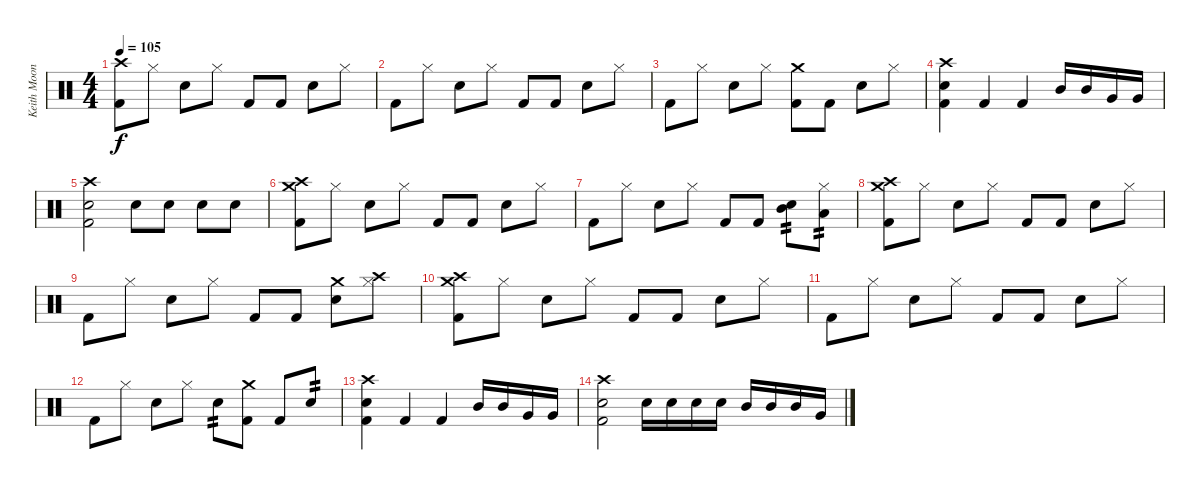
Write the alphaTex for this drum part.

\track ("Keith Moon" "Keith Moon") {instrument percussion}
\staff {score}
\articulation defaults
\ts (4 4)
\tempo 105
\clef neutral
\ks c
("Crash high (hit)" "Kick (hit) 2").8{dy f} "Hi-Hat (closed)".8 "Electric Snare (hit)".8 "Hi-Hat (closed)".8 "Kick (hit) 2".8 "Kick (hit) 2".8 "Electric Snare (hit)".8 "Hi-Hat (closed)".8 |
"Kick (hit) 2".8 "Hi-Hat (closed)".8 "Electric Snare (hit)".8 "Hi-Hat (closed)".8 "Kick (hit) 2".8 "Kick (hit) 2".8 "Electric Snare (hit)".8 "Hi-Hat (closed)".8 |
"Kick (hit) 2".8 "Hi-Hat (closed)".8 "Electric Snare (hit)".8 "Hi-Hat (closed)".8 ("Crash medium (hit)" "Kick (hit) 2").8 "Kick (hit) 2".8 "Electric Snare (hit)".8 "Hi-Hat (closed)".8 |
("Crash high (hit)" "Electric Snare (hit)" "Kick (hit) 2").4 "Kick (hit) 2".4 "Kick (hit) 2".4 "Mid Tom (hit)".16 "Mid Tom (hit)".16 "Very Low Tom (hit)".16 "Very Low Tom (hit)".16 |
("Crash high (hit)" "Electric Snare (hit)" "Kick (hit) 2").2 "Electric Snare (hit)".8 "Electric Snare (hit)".8 "Electric Snare (hit)".8 "Electric Snare (hit)".8 |
("Crash high (hit)" "Crash medium (hit)" "Kick (hit) 2").8 "Hi-Hat (closed)".8 "Electric Snare (hit)".8 "Hi-Hat (closed)".8 "Kick (hit) 2".8 "Kick (hit) 2".8 "Electric Snare (hit)".8 "Hi-Hat (closed)".8 |
"Kick (hit) 2".8 "Hi-Hat (closed)".8 "Electric Snare (hit)".8 "Hi-Hat (closed)".8 "Kick (hit) 2".8 "Kick (hit) 2".8 ("Electric Snare (hit)" "Mid Tom (hit)").8{tp 2} ("Hi-Hat (closed)" "Low Floor Tom (hit)").8{tp 2} |
("Crash high (hit)" "Crash medium (hit)" "Kick (hit) 2").8 "Hi-Hat (closed)".8 "Electric Snare (hit)".8 "Hi-Hat (closed)".8 "Kick (hit) 2".8 "Kick (hit) 2".8 "Electric Snare (hit)".8 "Hi-Hat (closed)".8 |
"Kick (hit) 2".8 "Hi-Hat (closed)".8 "Electric Snare (hit)".8 "Hi-Hat (closed)".8 "Kick (hit) 2".8 "Kick (hit) 2".8 ("Electric Snare (hit)" "Crash medium (hit)").8 ("Hi-Hat (closed)" "Crash high (hit)").8 |
("Crash high (hit)" "Crash medium (hit)" "Kick (hit) 2").8 "Hi-Hat (closed)".8 "Electric Snare (hit)".8 "Hi-Hat (closed)".8 "Kick (hit) 2".8 "Kick (hit) 2".8 "Electric Snare (hit)".8 "Hi-Hat (closed)".8 |
"Kick (hit) 2".8 "Hi-Hat (closed)".8 "Electric Snare (hit)".8 "Hi-Hat (closed)".8 "Kick (hit) 2".8 "Kick (hit) 2".8 "Electric Snare (hit)".8 "Hi-Hat (closed)".8 |
"Kick (hit) 2".8 "Hi-Hat (closed)".8 "Electric Snare (hit)".8 "Hi-Hat (closed)".8 "Electric Snare (hit)".8{tp 2} ("Crash medium (hit)" "Kick (hit) 2").8 "Kick (hit) 2".8 "Electric Snare (hit)".8{tp 2} |
("Crash high (hit)" "Electric Snare (hit)" "Kick (hit) 2").4 "Kick (hit) 2".4 "Kick (hit) 2".4 "Mid Tom (hit)".16 "Mid Tom (hit)".16 "Very Low Tom (hit)".16 "Very Low Tom (hit)".16 |
("Crash high (hit)" "Electric Snare (hit)" "Kick (hit) 2").2 "Electric Snare (hit)".16 "Electric Snare (hit)".16 "Electric Snare (hit)".16 "Electric Snare (hit)".16 "Mid Tom (hit)".16 "Mid Tom (hit)".16 "Mid Tom (hit)".16 "Very Low Tom (hit)".16
